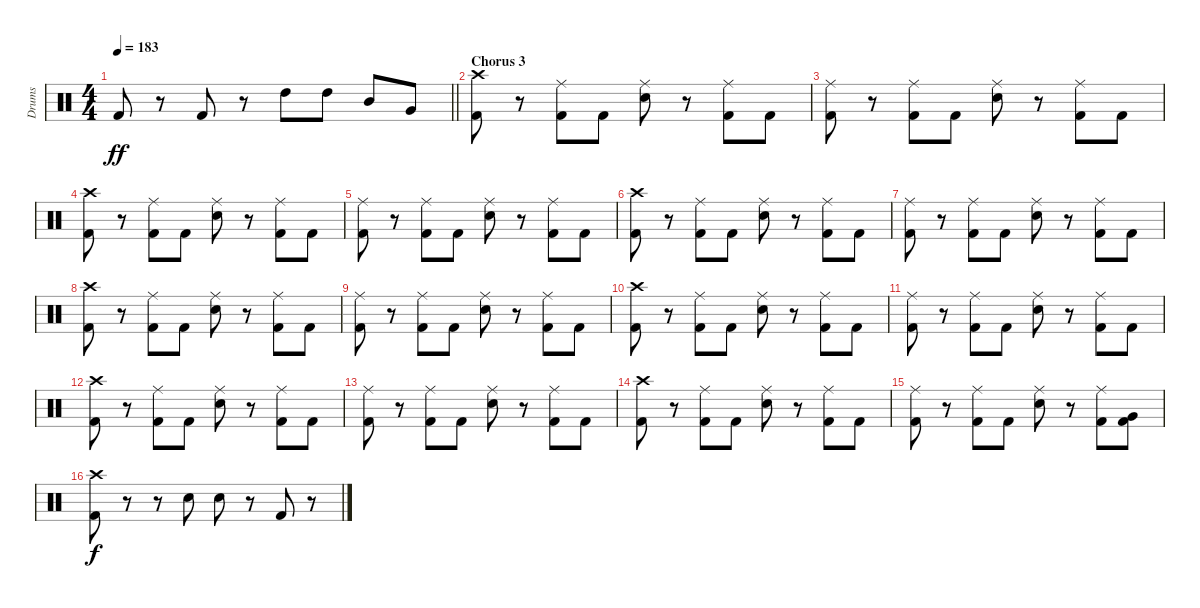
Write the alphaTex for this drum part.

\track ("Drums" "Drums") {instrument percussion}
\staff {score}
\articulation defaults
\ts (4 4)
\tempo 183
\clef neutral
\barLineRight lightlight
\ks c "Kick (hit) 2".8{dy ff}
r.8 "Kick (hit) 2".8 r.8 "High Tom (hit)".8 "High Tom (hit)".8 "Mid Tom (hit)".8 "Very Low Tom (hit)".8 |
\section ("" "Chorus 3")
("Crash high (hit)" "Kick (hit) 2").8 r.8 ("Ride (middle)" "Kick (hit) 2").8 "Kick (hit) 2".8 ("Ride (middle)" "Snare (hit) 2").8 r.8 ("Ride (middle)" "Kick (hit) 2").8 "Kick (hit) 2".8 |
("Ride (middle)" "Kick (hit) 2").8 r.8 ("Ride (middle)" "Kick (hit) 2").8 "Kick (hit) 2".8 ("Ride (middle)" "Snare (hit) 2").8 r.8 ("Ride (middle)" "Kick (hit) 2").8 "Kick (hit) 2".8 |
("Crash high (hit)" "Kick (hit) 2").8 r.8 ("Ride (middle)" "Kick (hit) 2").8 "Kick (hit) 2".8 ("Ride (middle)" "Snare (hit) 2").8 r.8 ("Ride (middle)" "Kick (hit) 2").8 "Kick (hit) 2".8 |
("Ride (middle)" "Kick (hit) 2").8 r.8 ("Ride (middle)" "Kick (hit) 2").8 "Kick (hit) 2".8 ("Ride (middle)" "Snare (hit) 2").8 r.8 ("Ride (middle)" "Kick (hit) 2").8 "Kick (hit) 2".8 |
("Crash high (hit)" "Kick (hit) 2").8 r.8 ("Ride (middle)" "Kick (hit) 2").8 "Kick (hit) 2".8 ("Ride (middle)" "Snare (hit) 2").8 r.8 ("Ride (middle)" "Kick (hit) 2").8 "Kick (hit) 2".8 |
("Ride (middle)" "Kick (hit) 2").8 r.8 ("Ride (middle)" "Kick (hit) 2").8 "Kick (hit) 2".8 ("Ride (middle)" "Snare (hit) 2").8 r.8 ("Ride (middle)" "Kick (hit) 2").8 "Kick (hit) 2".8 |
("Crash high (hit)" "Kick (hit) 2").8 r.8 ("Ride (middle)" "Kick (hit) 2").8 "Kick (hit) 2".8 ("Ride (middle)" "Snare (hit) 2").8 r.8 ("Ride (middle)" "Kick (hit) 2").8 "Kick (hit) 2".8 |
("Ride (middle)" "Kick (hit) 2").8 r.8 ("Ride (middle)" "Kick (hit) 2").8 "Kick (hit) 2".8 ("Ride (middle)" "Snare (hit) 2").8 r.8 ("Ride (middle)" "Kick (hit) 2").8 "Kick (hit) 2".8 |
("Crash high (hit)" "Kick (hit) 2").8 r.8 ("Ride (middle)" "Kick (hit) 2").8 "Kick (hit) 2".8 ("Ride (middle)" "Snare (hit) 2").8 r.8 ("Ride (middle)" "Kick (hit) 2").8 "Kick (hit) 2".8 |
("Ride (middle)" "Kick (hit) 2").8 r.8 ("Ride (middle)" "Kick (hit) 2").8 "Kick (hit) 2".8 ("Ride (middle)" "Snare (hit) 2").8 r.8 ("Ride (middle)" "Kick (hit) 2").8 "Kick (hit) 2".8 |
("Crash high (hit)" "Kick (hit) 2").8 r.8 ("Ride (middle)" "Kick (hit) 2").8 "Kick (hit) 2".8 ("Ride (middle)" "Snare (hit) 2").8 r.8 ("Ride (middle)" "Kick (hit) 2").8 "Kick (hit) 2".8 |
("Ride (middle)" "Kick (hit) 2").8 r.8 ("Ride (middle)" "Kick (hit) 2").8 "Kick (hit) 2".8 ("Ride (middle)" "Snare (hit) 2").8 r.8 ("Ride (middle)" "Kick (hit) 2").8 "Kick (hit) 2".8 |
("Crash high (hit)" "Kick (hit) 2").8 r.8 ("Ride (middle)" "Kick (hit) 2").8 "Kick (hit) 2".8 ("Ride (middle)" "Snare (hit) 2").8 r.8 ("Ride (middle)" "Kick (hit) 2").8 "Kick (hit) 2".8 |
("Ride (middle)" "Kick (hit) 2").8 r.8 ("Ride (middle)" "Kick (hit) 2").8 "Kick (hit) 2".8 ("Ride (middle)" "Snare (hit) 2").8 r.8 ("Ride (middle)" "Kick (hit) 2").8 ("Very Low Tom (hit)" "Kick (hit) 2").8 |
("Crash high (hit)" "Kick (hit) 2").8{dy f} r.8 r.8 "Snare (hit) 2".8 "Snare (hit) 2".8 r.8 "Kick (hit) 2".8 r.8
